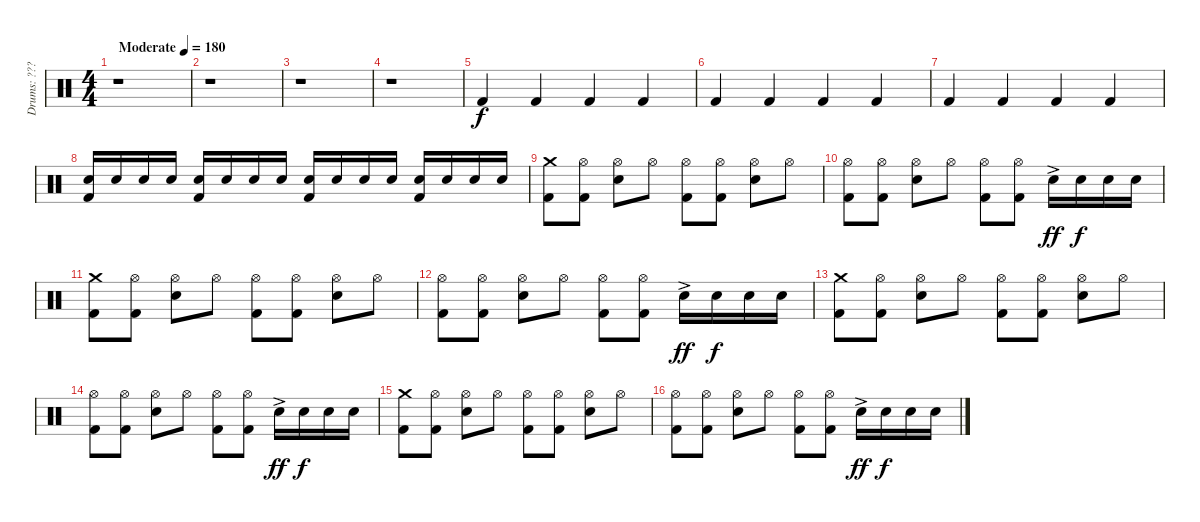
\track ("Drums: ???" "Drums: ???") {instrument percussion}
\staff {score}
\articulation defaults
\ts (4 4)
\tempo (180 "Moderate")
\clef neutral
\ks c
r.1{dy f} |
r.1 |
r.1 |
r.1 |
"Kick (hit) 2".4 "Kick (hit) 2".4 "Kick (hit) 2".4 "Kick (hit) 2".4 |
"Kick (hit) 2".4 "Kick (hit) 2".4 "Kick (hit) 2".4 "Kick (hit) 2".4 |
"Kick (hit) 2".4 "Kick (hit) 2".4 "Kick (hit) 2".4 "Kick (hit) 2".4 |
("Snare (hit) 2" "Kick (hit) 2").16 "Snare (hit) 2".16 "Snare (hit) 2".16 "Snare (hit) 2".16 ("Snare (hit) 2" "Kick (hit) 2").16 "Snare (hit) 2".16 "Snare (hit) 2".16 "Snare (hit) 2".16 ("Snare (hit) 2" "Kick (hit) 2").16 "Snare (hit) 2".16 "Snare (hit) 2".16 "Snare (hit) 2".16 ("Snare (hit) 2" "Kick (hit) 2").16 "Snare (hit) 2".16 "Snare (hit) 2".16 "Snare (hit) 2".16 |
("Crash medium (hit)" "Kick (hit) 2").8 ("Hi-Hat (open)" "Kick (hit) 2").8 ("Hi-Hat (open)" "Snare (hit) 2").8 "Hi-Hat (open)".8 ("Hi-Hat (open)" "Kick (hit) 2").8 ("Hi-Hat (open)" "Kick (hit) 2").8 ("Hi-Hat (open)" "Snare (hit) 2").8 "Hi-Hat (open)".8 |
("Hi-Hat (open)" "Kick (hit) 2").8 ("Hi-Hat (open)" "Kick (hit) 2").8 ("Hi-Hat (open)" "Snare (hit) 2").8 "Hi-Hat (open)".8 ("Hi-Hat (open)" "Kick (hit) 2").8 ("Hi-Hat (open)" "Kick (hit) 2").8 "Snare (hit) 2"{ac}.16{dy ff} "Snare (hit) 2".16{dy f} "Snare (hit) 2".16 "Snare (hit) 2".16 |
("Crash medium (hit)" "Kick (hit) 2").8 ("Hi-Hat (open)" "Kick (hit) 2").8 ("Hi-Hat (open)" "Snare (hit) 2").8 "Hi-Hat (open)".8 ("Hi-Hat (open)" "Kick (hit) 2").8 ("Hi-Hat (open)" "Kick (hit) 2").8 ("Hi-Hat (open)" "Snare (hit) 2").8 "Hi-Hat (open)".8 |
("Hi-Hat (open)" "Kick (hit) 2").8 ("Hi-Hat (open)" "Kick (hit) 2").8 ("Hi-Hat (open)" "Snare (hit) 2").8 "Hi-Hat (open)".8 ("Hi-Hat (open)" "Kick (hit) 2").8 ("Hi-Hat (open)" "Kick (hit) 2").8 "Snare (hit) 2"{ac}.16{dy ff} "Snare (hit) 2".16{dy f} "Snare (hit) 2".16 "Snare (hit) 2".16 |
("Crash medium (hit)" "Kick (hit) 2").8 ("Hi-Hat (open)" "Kick (hit) 2").8 ("Hi-Hat (open)" "Snare (hit) 2").8 "Hi-Hat (open)".8 ("Hi-Hat (open)" "Kick (hit) 2").8 ("Hi-Hat (open)" "Kick (hit) 2").8 ("Hi-Hat (open)" "Snare (hit) 2").8 "Hi-Hat (open)".8 |
("Hi-Hat (open)" "Kick (hit) 2").8 ("Hi-Hat (open)" "Kick (hit) 2").8 ("Hi-Hat (open)" "Snare (hit) 2").8 "Hi-Hat (open)".8 ("Hi-Hat (open)" "Kick (hit) 2").8 ("Hi-Hat (open)" "Kick (hit) 2").8 "Snare (hit) 2"{ac}.16{dy ff} "Snare (hit) 2".16{dy f} "Snare (hit) 2".16 "Snare (hit) 2".16 |
("Crash medium (hit)" "Kick (hit) 2").8 ("Hi-Hat (open)" "Kick (hit) 2").8 ("Hi-Hat (open)" "Snare (hit) 2").8 "Hi-Hat (open)".8 ("Hi-Hat (open)" "Kick (hit) 2").8 ("Hi-Hat (open)" "Kick (hit) 2").8 ("Hi-Hat (open)" "Snare (hit) 2").8 "Hi-Hat (open)".8 |
("Hi-Hat (open)" "Kick (hit) 2").8 ("Hi-Hat (open)" "Kick (hit) 2").8 ("Hi-Hat (open)" "Snare (hit) 2").8 "Hi-Hat (open)".8 ("Hi-Hat (open)" "Kick (hit) 2").8 ("Hi-Hat (open)" "Kick (hit) 2").8 "Snare (hit) 2"{ac}.16{dy ff} "Snare (hit) 2".16{dy f} "Snare (hit) 2".16 "Snare (hit) 2".16
